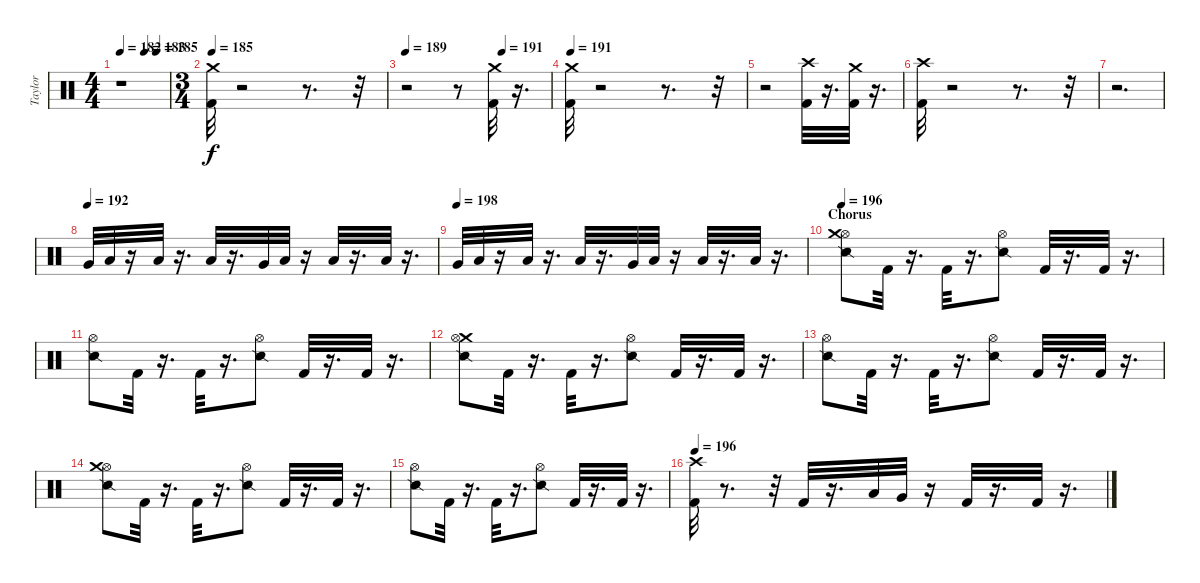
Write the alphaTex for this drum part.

\track ("Taylor" "Taylor") {instrument percussion}
\staff {score}
\articulation defaults
\ts (4 4)
\tempo 182
\tempo (183 0.5)
\tempo (185 0.75)
\clef neutral
\ks c
r.1{dy f} |
\ts (3 4)
\tempo 185
("Kick (hit) 2" "Crash medium (hit)").32 r.2 r.8{d} r.32 |
\tempo 189
\tempo (191 0.6666666666666666)
r.2 r.8 ("Kick (hit) 2" "Crash medium (hit)").32 r.16{d} |
\tempo 191
("Kick (hit) 2" "Crash medium (hit)").32 r.2 r.8{d} r.32 |
r.2 ("Kick (hit) 2" "Crash high (hit)").32 r.16{d} ("Kick (hit) 2" "Crash medium (hit)").32 r.16{d} |
("Kick (hit) 2" "Crash high (hit)").32 r.2 r.8{d} r.32 |
r.2{d} |
\tempo (192)
"Very Low Tom (hit)".32 "Low Tom (hit)".32 r.16 "Low Floor Tom (hit)".32 r.16{d} "Low Floor Tom (hit)".32 r.16{d} "Very Low Tom (hit)".32 "Low Tom (hit)".32 r.16 "Low Floor Tom (hit)".32 r.16{d} "Low Floor Tom (hit)".32 r.16{d} |
\tempo (198)
"Very Low Tom (hit)".32 "Low Tom (hit)".32 r.16 "Low Floor Tom (hit)".32 r.16{d} "Low Floor Tom (hit)".32 r.16{d} "Very Low Tom (hit)".32 "Low Tom (hit)".32 r.16 "Low Floor Tom (hit)".32 r.16{d} "Low Floor Tom (hit)".32 r.16{d} |
\section ("" "Chorus")
\tempo 196
("Hi-Hat (open)" "Crash medium (hit)" "Snare (side stick) 2").8 "Kick (hit) 2".32 r.16{d} "Kick (hit) 2".32 r.16{d} ("Snare (side stick) 2" "Hi-Hat (open)").8 "Kick (hit) 2".32 r.16{d} "Kick (hit) 2".32 r.16{d} |
("Snare (side stick) 2" "Hi-Hat (open)").8 "Kick (hit) 2".32 r.16{d} "Kick (hit) 2".32 r.16{d} ("Hi-Hat (open)" "Snare (side stick) 2").8 "Kick (hit) 2".32 r.16{d} "Kick (hit) 2".32 r.16{d} |
("Snare (side stick) 2" "Crash medium (hit)" "Hi-Hat (open)").8 "Kick (hit) 2".32 r.16{d} "Kick (hit) 2".32 r.16{d} ("Hi-Hat (open)" "Snare (side stick) 2").8 "Kick (hit) 2".32 r.16{d} "Kick (hit) 2".32 r.16{d} |
("Hi-Hat (open)" "Snare (side stick) 2").8 "Kick (hit) 2".32 r.16{d} "Kick (hit) 2".32 r.16{d} ("Snare (side stick) 2" "Hi-Hat (open)").8 "Kick (hit) 2".32 r.16{d} "Kick (hit) 2".32 r.16{d} |
("Snare (side stick) 2" "Hi-Hat (open)" "Crash medium (hit)").8 "Kick (hit) 2".32 r.16{d} "Kick (hit) 2".32 r.16{d} ("Hi-Hat (open)" "Snare (side stick) 2").8 "Kick (hit) 2".32 r.16{d} "Kick (hit) 2".32 r.16{d} |
("Hi-Hat (open)" "Snare (side stick) 2").8 "Kick (hit) 2".32 r.16{d} "Kick (hit) 2".32 r.16{d} ("Snare (side stick) 2" "Hi-Hat (open)").8 "Kick (hit) 2".32 r.16{d} "Kick (hit) 2".32 r.16{d} |
\tempo 196
("Kick (hit) 2" "Crash high (hit)").32 r.8{d} r.32 "Kick (hit) 2".32 r.16{d} "Low Floor Tom (hit)".32 "Very Low Tom (hit)".32 r.16 "Kick (hit) 2".32 r.16{d} "Kick (hit) 2".32 r.16{d}
